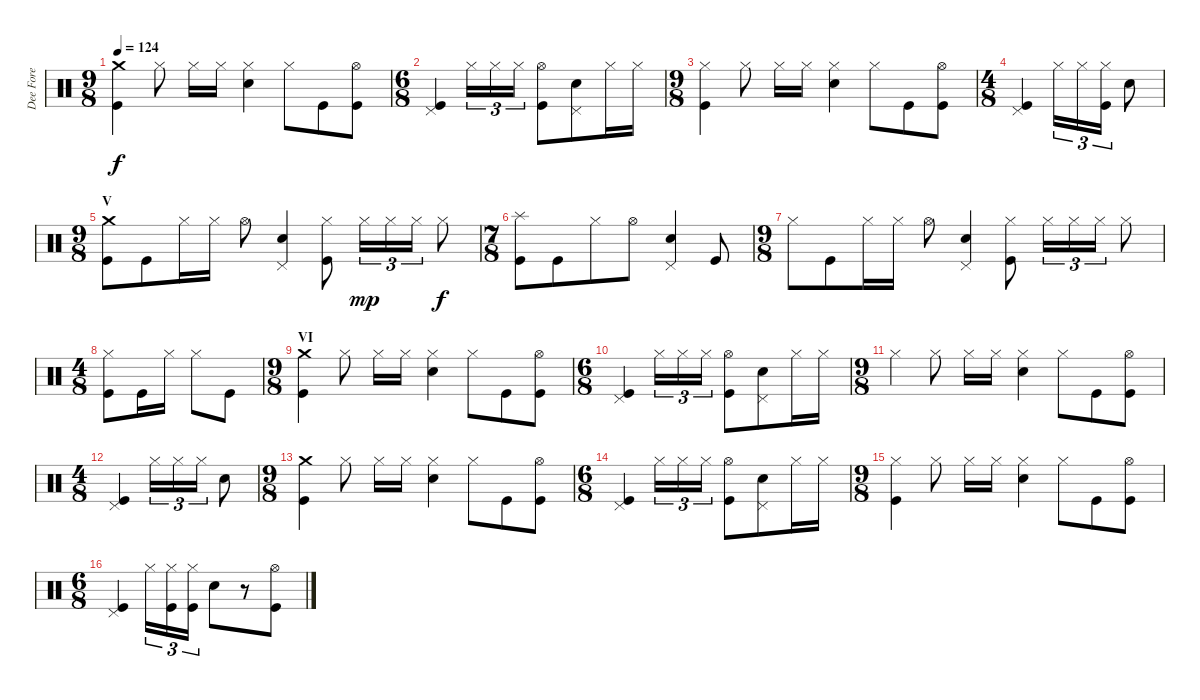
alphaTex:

\track ("Dee Fore" "Dee Fore") {instrument percussion}
\staff {score}
\articulation defaults
\ts (9 8)
\tempo 124
\clef neutral
\ks c
("Crash medium (hit)" "Kick (hit)").4{dy f} "Hi-Hat (closed)".8 "Hi-Hat (closed)".16 "Hi-Hat (closed)".16 ("Hi-Hat (closed)" "Electric Snare (hit)").4 "Hi-Hat (closed)".8 "Kick (hit)".8 ("Hi-Hat (open)" "Kick (hit)").8 |
\ts (6 8)
("Pedal Hi-Hat (hit)" "Kick (hit)").4 "Hi-Hat (closed)".16{tu (3 2)} "Hi-Hat (closed)".16{tu (3 2)} "Hi-Hat (closed)".16{tu (3 2)} ("Hi-Hat (open)" "Kick (hit)").8 ("Electric Snare (hit)" "Pedal Hi-Hat (hit)").8 "Hi-Hat (closed)".16 "Hi-Hat (closed)".16 |
\ts (9 8)
("Hi-Hat (closed)" "Kick (hit)").4 "Hi-Hat (closed)".8 "Hi-Hat (closed)".16 "Hi-Hat (closed)".16 ("Hi-Hat (closed)" "Electric Snare (hit)").4 "Hi-Hat (closed)".8 "Kick (hit)".8 ("Hi-Hat (open)" "Kick (hit)").8 |
\ts (4 8)
("Pedal Hi-Hat (hit)" "Kick (hit)").4 "Hi-Hat (closed)".16{tu (3 2)} "Hi-Hat (closed)".16{tu (3 2)} ("Hi-Hat (closed)" "Kick (hit)").16{tu (3 2)} "Electric Snare (hit)".8 |
\ts (9 8)
\section ("" "V")
("Crash medium (hit)" "Kick (hit)").8 "Kick (hit)".8 "Hi-Hat (closed)".16 "Hi-Hat (closed)".16 "Hi-Hat (open)".8 ("Electric Snare (hit)" "Pedal Hi-Hat (hit)").4 ("Hi-Hat (closed)" "Kick (hit)").8 "Hi-Hat (closed)".16{tu (3 2) dy mp} "Hi-Hat (closed)".16{tu (3 2)} "Hi-Hat (closed)".16{tu (3 2)} "Hi-Hat (closed)".8{dy f} |
\ts (7 8)
("Splash (hit)" "Kick (hit)").8 "Kick (hit)".8 "Hi-Hat (closed)".8 "Hi-Hat (open)".8 ("Electric Snare (hit)" "Pedal Hi-Hat (hit)").4 "Kick (hit)".8 |
\ts (9 8)
"Hi-Hat (closed)".8 "Kick (hit)".8 "Hi-Hat (closed)".16 "Hi-Hat (closed)".16 "Hi-Hat (open)".8 ("Electric Snare (hit)" "Pedal Hi-Hat (hit)").4 ("Hi-Hat (closed)" "Kick (hit)").8 "Hi-Hat (closed)".16{tu (3 2)} "Hi-Hat (closed)".16{tu (3 2)} "Hi-Hat (closed)".16{tu (3 2)} "Hi-Hat (closed)".8 |
\ts (4 8)
("Hi-Hat (closed)" "Kick (hit)").8 "Kick (hit)".16 "Hi-Hat (closed)".16 "Hi-Hat (closed)".8 "Kick (hit)".8 |
\ts (9 8)
\section ("" "VI")
("Crash medium (hit)" "Kick (hit)").4 "Hi-Hat (closed)".8 "Hi-Hat (closed)".16 "Hi-Hat (closed)".16 ("Hi-Hat (closed)" "Electric Snare (hit)").4 "Hi-Hat (closed)".8 "Kick (hit)".8 ("Hi-Hat (open)" "Kick (hit)").8 |
\ts (6 8)
("Pedal Hi-Hat (hit)" "Kick (hit)").4 "Hi-Hat (closed)".16{tu (3 2)} "Hi-Hat (closed)".16{tu (3 2)} "Hi-Hat (closed)".16{tu (3 2)} ("Hi-Hat (open)" "Kick (hit)").8 ("Electric Snare (hit)" "Pedal Hi-Hat (hit)").8 "Hi-Hat (closed)".16 "Hi-Hat (closed)".16 |
\ts (9 8)
"Hi-Hat (closed)".4 "Hi-Hat (closed)".8 "Hi-Hat (closed)".16 "Hi-Hat (closed)".16 ("Hi-Hat (closed)" "Electric Snare (hit)").4 "Hi-Hat (closed)".8 "Kick (hit)".8 ("Hi-Hat (open)" "Kick (hit)").8 |
\ts (4 8)
("Pedal Hi-Hat (hit)" "Kick (hit)").4 "Hi-Hat (closed)".16{tu (3 2)} "Hi-Hat (closed)".16{tu (3 2)} "Hi-Hat (closed)".16{tu (3 2)} "Electric Snare (hit)".8 |
\ts (9 8)
("Crash medium (hit)" "Kick (hit)").4 "Hi-Hat (closed)".8 "Hi-Hat (closed)".16 "Hi-Hat (closed)".16 ("Hi-Hat (closed)" "Electric Snare (hit)").4 "Hi-Hat (closed)".8 "Kick (hit)".8 ("Hi-Hat (open)" "Kick (hit)").8 |
\ts (6 8)
("Pedal Hi-Hat (hit)" "Kick (hit)").4 "Hi-Hat (closed)".16{tu (3 2)} "Hi-Hat (closed)".16{tu (3 2)} "Hi-Hat (closed)".16{tu (3 2)} ("Hi-Hat (open)" "Kick (hit)").8 ("Electric Snare (hit)" "Pedal Hi-Hat (hit)").8 "Hi-Hat (closed)".16 "Hi-Hat (closed)".16 |
\ts (9 8)
("Hi-Hat (closed)" "Kick (hit)").4 "Hi-Hat (closed)".8 "Hi-Hat (closed)".16 "Hi-Hat (closed)".16 ("Hi-Hat (closed)" "Electric Snare (hit)").4 "Hi-Hat (closed)".8 "Kick (hit)".8 ("Hi-Hat (open)" "Kick (hit)").8 |
\ts (6 8)
("Pedal Hi-Hat (hit)" "Kick (hit)").4 "Hi-Hat (closed)".16{tu (3 2)} ("Hi-Hat (closed)" "Kick (hit)").16{tu (3 2)} ("Hi-Hat (closed)" "Kick (hit)").16{tu (3 2)} "Electric Snare (hit)".8 r.8 ("Hi-Hat (open)" "Kick (hit)").8
